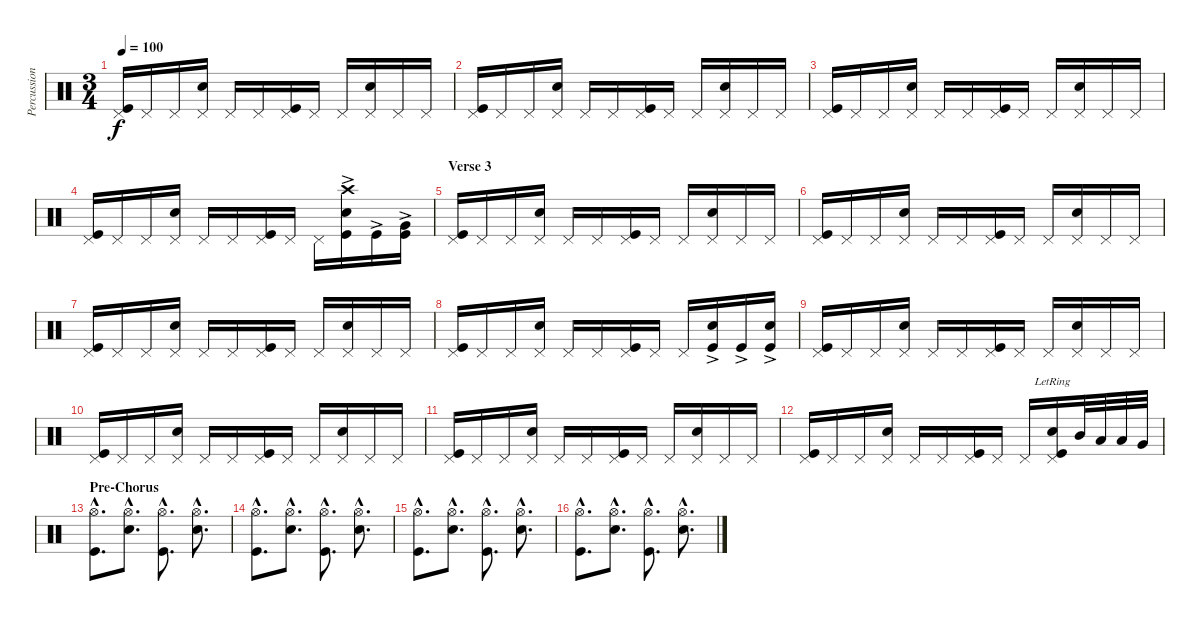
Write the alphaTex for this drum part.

\track ("Percussion" "Percussion") {instrument percussion}
\staff {score}
\articulation defaults
\ts (3 4)
\tempo 100
\clef neutral
\ks c
("Pedal Hi-Hat (hit)" "Kick (hit)").16{dy f} "Pedal Hi-Hat (hit)".16 "Pedal Hi-Hat (hit)".16 ("Pedal Hi-Hat (hit)" "Snare (hit) 2").16 "Pedal Hi-Hat (hit)".16 "Pedal Hi-Hat (hit)".16 ("Pedal Hi-Hat (hit)" "Kick (hit)").16 "Pedal Hi-Hat (hit)".16 "Pedal Hi-Hat (hit)".16 ("Pedal Hi-Hat (hit)" "Snare (hit) 2").16 "Pedal Hi-Hat (hit)".16 "Pedal Hi-Hat (hit)".16 |
("Pedal Hi-Hat (hit)" "Kick (hit)").16 "Pedal Hi-Hat (hit)".16 "Pedal Hi-Hat (hit)".16 ("Pedal Hi-Hat (hit)" "Snare (hit) 2").16 "Pedal Hi-Hat (hit)".16 "Pedal Hi-Hat (hit)".16 ("Pedal Hi-Hat (hit)" "Kick (hit)").16 "Pedal Hi-Hat (hit)".16 "Pedal Hi-Hat (hit)".16 ("Pedal Hi-Hat (hit)" "Snare (hit) 2").16 "Pedal Hi-Hat (hit)".16 "Pedal Hi-Hat (hit)".16 |
("Pedal Hi-Hat (hit)" "Kick (hit)").16 "Pedal Hi-Hat (hit)".16 "Pedal Hi-Hat (hit)".16 ("Pedal Hi-Hat (hit)" "Snare (hit) 2").16 "Pedal Hi-Hat (hit)".16 "Pedal Hi-Hat (hit)".16 ("Pedal Hi-Hat (hit)" "Kick (hit)").16 "Pedal Hi-Hat (hit)".16 "Pedal Hi-Hat (hit)".16 ("Pedal Hi-Hat (hit)" "Snare (hit) 2").16 "Pedal Hi-Hat (hit)".16 "Pedal Hi-Hat (hit)".16 |
("Pedal Hi-Hat (hit)" "Kick (hit)").16 "Pedal Hi-Hat (hit)".16 "Pedal Hi-Hat (hit)".16 ("Pedal Hi-Hat (hit)" "Snare (hit) 2").16 "Pedal Hi-Hat (hit)".16 "Pedal Hi-Hat (hit)".16 ("Pedal Hi-Hat (hit)" "Kick (hit)").16 "Pedal Hi-Hat (hit)".16 "Pedal Hi-Hat (hit)".16 ("Crash high (hit)" "Snare (hit) 2"{ac} "Kick (hit)").16 "Kick (hit)"{ac}.16 ("Very Low Tom (hit)"{ac} "Kick (hit)").16 |
\section ("" "Verse 3")
("Pedal Hi-Hat (hit)" "Kick (hit)").16 "Pedal Hi-Hat (hit)".16 "Pedal Hi-Hat (hit)".16 ("Pedal Hi-Hat (hit)" "Snare (hit) 2").16 "Pedal Hi-Hat (hit)".16 "Pedal Hi-Hat (hit)".16 ("Pedal Hi-Hat (hit)" "Kick (hit)").16 "Pedal Hi-Hat (hit)".16 "Pedal Hi-Hat (hit)".16 ("Pedal Hi-Hat (hit)" "Snare (hit) 2").16 "Pedal Hi-Hat (hit)".16 "Pedal Hi-Hat (hit)".16 |
("Pedal Hi-Hat (hit)" "Kick (hit)").16 "Pedal Hi-Hat (hit)".16 "Pedal Hi-Hat (hit)".16 ("Pedal Hi-Hat (hit)" "Snare (hit) 2").16 "Pedal Hi-Hat (hit)".16 "Pedal Hi-Hat (hit)".16 ("Pedal Hi-Hat (hit)" "Kick (hit)").16 "Pedal Hi-Hat (hit)".16 "Pedal Hi-Hat (hit)".16 ("Pedal Hi-Hat (hit)" "Snare (hit) 2").16 "Pedal Hi-Hat (hit)".16 "Pedal Hi-Hat (hit)".16 |
("Pedal Hi-Hat (hit)" "Kick (hit)").16 "Pedal Hi-Hat (hit)".16 "Pedal Hi-Hat (hit)".16 ("Pedal Hi-Hat (hit)" "Snare (hit) 2").16 "Pedal Hi-Hat (hit)".16 "Pedal Hi-Hat (hit)".16 ("Pedal Hi-Hat (hit)" "Kick (hit)").16 "Pedal Hi-Hat (hit)".16 "Pedal Hi-Hat (hit)".16 ("Pedal Hi-Hat (hit)" "Snare (hit) 2").16 "Pedal Hi-Hat (hit)".16 "Pedal Hi-Hat (hit)".16 |
("Pedal Hi-Hat (hit)" "Kick (hit)").16 "Pedal Hi-Hat (hit)".16 "Pedal Hi-Hat (hit)".16 ("Pedal Hi-Hat (hit)" "Snare (hit) 2").16 "Pedal Hi-Hat (hit)".16 "Pedal Hi-Hat (hit)".16 ("Pedal Hi-Hat (hit)" "Kick (hit)").16 "Pedal Hi-Hat (hit)".16 "Pedal Hi-Hat (hit)".16 ("Snare (hit) 2"{ac} "Kick (hit)").16 "Kick (hit)"{ac}.16 ("Snare (hit) 2"{ac} "Kick (hit)").16 |
("Pedal Hi-Hat (hit)" "Kick (hit)").16 "Pedal Hi-Hat (hit)".16 "Pedal Hi-Hat (hit)".16 ("Pedal Hi-Hat (hit)" "Snare (hit) 2").16 "Pedal Hi-Hat (hit)".16 "Pedal Hi-Hat (hit)".16 ("Pedal Hi-Hat (hit)" "Kick (hit)").16 "Pedal Hi-Hat (hit)".16 "Pedal Hi-Hat (hit)".16 ("Pedal Hi-Hat (hit)" "Snare (hit) 2").16 "Pedal Hi-Hat (hit)".16 "Pedal Hi-Hat (hit)".16 |
("Pedal Hi-Hat (hit)" "Kick (hit)").16 "Pedal Hi-Hat (hit)".16 "Pedal Hi-Hat (hit)".16 ("Pedal Hi-Hat (hit)" "Snare (hit) 2").16 "Pedal Hi-Hat (hit)".16 "Pedal Hi-Hat (hit)".16 ("Pedal Hi-Hat (hit)" "Kick (hit)").16 "Pedal Hi-Hat (hit)".16 "Pedal Hi-Hat (hit)".16 ("Pedal Hi-Hat (hit)" "Snare (hit) 2").16 "Pedal Hi-Hat (hit)".16 "Pedal Hi-Hat (hit)".16 |
("Pedal Hi-Hat (hit)" "Kick (hit)").16 "Pedal Hi-Hat (hit)".16 "Pedal Hi-Hat (hit)".16 ("Pedal Hi-Hat (hit)" "Snare (hit) 2").16 "Pedal Hi-Hat (hit)".16 "Pedal Hi-Hat (hit)".16 ("Pedal Hi-Hat (hit)" "Kick (hit)").16 "Pedal Hi-Hat (hit)".16 "Pedal Hi-Hat (hit)".16 ("Pedal Hi-Hat (hit)" "Snare (hit) 2").16 "Pedal Hi-Hat (hit)".16 "Pedal Hi-Hat (hit)".16 |
("Pedal Hi-Hat (hit)" "Kick (hit)").16 "Pedal Hi-Hat (hit)".16 "Pedal Hi-Hat (hit)".16 ("Pedal Hi-Hat (hit)" "Snare (hit) 2").16 "Pedal Hi-Hat (hit)".16 "Pedal Hi-Hat (hit)".16 ("Pedal Hi-Hat (hit)" "Kick (hit)").16 "Pedal Hi-Hat (hit)".16 "Pedal Hi-Hat (hit)".16 ("Pedal Hi-Hat (hit)" "Snare (hit) 2"{lr} "Kick (hit)").16 "Mid Tom (hit)".32 "Low Tom (hit)".32 "Low Tom (hit)".32 "Very Low Tom (hit)".32 |
\section ("" "Pre-Chorus")
("Hi-Hat (open)"{hac} "Kick (hit)"{hac}).8{d} ("Hi-Hat (open)"{hac} "Snare (hit) 2"{hac}).8{d} ("Hi-Hat (open)"{hac} "Kick (hit)"{hac}).8{d} ("Hi-Hat (open)"{hac} "Snare (hit) 2"{hac}).8{d} |
("Hi-Hat (open)"{hac} "Kick (hit)"{hac}).8{d} ("Hi-Hat (open)"{hac} "Snare (hit) 2"{hac}).8{d} ("Hi-Hat (open)"{hac} "Kick (hit)"{hac}).8{d} ("Hi-Hat (open)"{hac} "Snare (hit) 2"{hac}).8{d} |
("Hi-Hat (open)"{hac} "Kick (hit)"{hac}).8{d} ("Hi-Hat (open)"{hac} "Snare (hit) 2"{hac}).8{d} ("Hi-Hat (open)"{hac} "Kick (hit)"{hac}).8{d} ("Hi-Hat (open)"{hac} "Snare (hit) 2"{hac}).8{d} |
("Hi-Hat (open)"{hac} "Kick (hit)"{hac}).8{d} ("Hi-Hat (open)"{hac} "Snare (hit) 2"{hac}).8{d} ("Hi-Hat (open)"{hac} "Kick (hit)"{hac}).8{d} ("Hi-Hat (open)"{hac} "Snare (hit) 2"{hac}).8{d}
